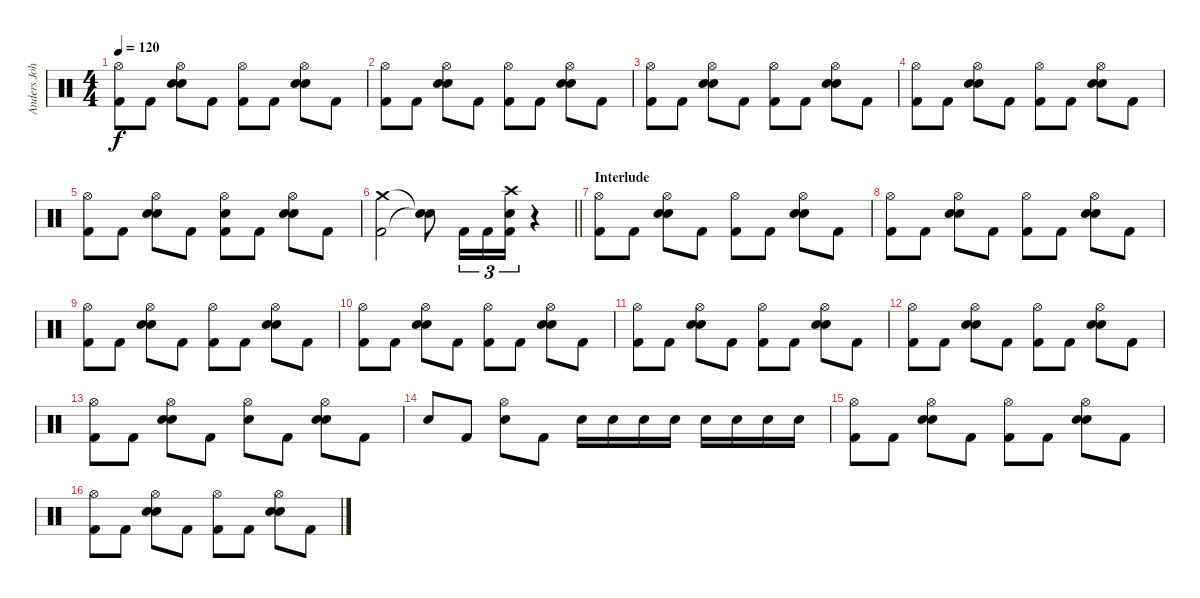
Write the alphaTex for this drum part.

\track ("Anders Johansson" "Anders Joh") {instrument percussion}
\staff {score}
\articulation defaults
\ts (4 4)
\tempo 120
\clef neutral
\ks c
("Hi-Hat (open)" "Kick (hit) 2").8{dy f} "Kick (hit) 2".8 ("Hi-Hat (open)" "Electric Snare (hit)" "Snare (hit) 2").8 "Kick (hit) 2".8 ("Hi-Hat (open)" "Kick (hit) 2").8 "Kick (hit) 2".8 ("Hi-Hat (open)" "Electric Snare (hit)" "Snare (hit) 2").8 "Kick (hit) 2".8 |
("Hi-Hat (open)" "Kick (hit) 2").8 "Kick (hit) 2".8 ("Hi-Hat (open)" "Electric Snare (hit)" "Snare (hit) 2").8 "Kick (hit) 2".8 ("Hi-Hat (open)" "Kick (hit) 2").8 "Kick (hit) 2".8 ("Hi-Hat (open)" "Electric Snare (hit)" "Snare (hit) 2").8 "Kick (hit) 2".8 |
("Hi-Hat (open)" "Kick (hit) 2").8 "Kick (hit) 2".8 ("Hi-Hat (open)" "Electric Snare (hit)" "Snare (hit) 2").8 "Kick (hit) 2".8 ("Hi-Hat (open)" "Kick (hit) 2").8 "Kick (hit) 2".8 ("Hi-Hat (open)" "Electric Snare (hit)" "Snare (hit) 2").8 "Kick (hit) 2".8 |
("Hi-Hat (open)" "Kick (hit) 2").8 "Kick (hit) 2".8 ("Hi-Hat (open)" "Electric Snare (hit)" "Snare (hit) 2").8 "Kick (hit) 2".8 ("Hi-Hat (open)" "Kick (hit) 2").8 "Kick (hit) 2".8 ("Hi-Hat (open)" "Electric Snare (hit)" "Snare (hit) 2").8 "Kick (hit) 2".8 |
("Hi-Hat (open)" "Kick (hit) 2").8 "Kick (hit) 2".8 ("Hi-Hat (open)" "Electric Snare (hit)" "Snare (hit) 2").8 "Kick (hit) 2".8 ("Hi-Hat (open)" "Electric Snare (hit)" "Kick (hit) 2").8 "Kick (hit) 2".8 ("Hi-Hat (open)" "Electric Snare (hit)" "Snare (hit) 2").8 "Kick (hit) 2".8 |
\barLineRight lightlight
("Crash medium (hit)" "Kick (hit) 2").2 ("Snare (hit)"{t} "Snare (hit)"{t}).8 "Kick (hit) 2".16{tu (3 2)} "Kick (hit) 2".16{tu (3 2)} ("Crash high (hit)" "Electric Snare (hit)" "Kick (hit) 2").16{tu (3 2)} r.4 |
\section ("" "Interlude")
("Hi-Hat (open)" "Kick (hit) 2").8 "Kick (hit) 2".8 ("Hi-Hat (open)" "Electric Snare (hit)" "Snare (hit) 2").8 "Kick (hit) 2".8 ("Hi-Hat (open)" "Kick (hit) 2").8 "Kick (hit) 2".8 ("Hi-Hat (open)" "Electric Snare (hit)" "Snare (hit) 2").8 "Kick (hit) 2".8 |
("Hi-Hat (open)" "Kick (hit) 2").8 "Kick (hit) 2".8 ("Hi-Hat (open)" "Electric Snare (hit)" "Snare (hit) 2").8 "Kick (hit) 2".8 ("Hi-Hat (open)" "Kick (hit) 2").8 "Kick (hit) 2".8 ("Hi-Hat (open)" "Electric Snare (hit)" "Snare (hit) 2").8 "Kick (hit) 2".8 |
("Hi-Hat (open)" "Kick (hit) 2").8 "Kick (hit) 2".8 ("Hi-Hat (open)" "Electric Snare (hit)" "Snare (hit) 2").8 "Kick (hit) 2".8 ("Hi-Hat (open)" "Kick (hit) 2").8 "Kick (hit) 2".8 ("Hi-Hat (open)" "Electric Snare (hit)" "Snare (hit) 2").8 "Kick (hit) 2".8 |
("Hi-Hat (open)" "Kick (hit) 2").8 "Kick (hit) 2".8 ("Hi-Hat (open)" "Electric Snare (hit)" "Snare (hit) 2").8 "Kick (hit) 2".8 ("Hi-Hat (open)" "Kick (hit) 2").8 "Kick (hit) 2".8 ("Hi-Hat (open)" "Electric Snare (hit)" "Snare (hit) 2").8 "Kick (hit) 2".8 |
("Hi-Hat (open)" "Kick (hit) 2").8 "Kick (hit) 2".8 ("Hi-Hat (open)" "Electric Snare (hit)" "Snare (hit) 2").8 "Kick (hit) 2".8 ("Hi-Hat (open)" "Kick (hit) 2").8 "Kick (hit) 2".8 ("Hi-Hat (open)" "Electric Snare (hit)" "Snare (hit) 2").8 "Kick (hit) 2".8 |
("Hi-Hat (open)" "Kick (hit) 2").8 "Kick (hit) 2".8 ("Hi-Hat (open)" "Electric Snare (hit)" "Snare (hit) 2").8 "Kick (hit) 2".8 ("Hi-Hat (open)" "Kick (hit) 2").8 "Kick (hit) 2".8 ("Hi-Hat (open)" "Electric Snare (hit)" "Snare (hit) 2").8 "Kick (hit) 2".8 |
("Hi-Hat (open)" "Kick (hit) 2").8 "Kick (hit) 2".8 ("Hi-Hat (open)" "Electric Snare (hit)" "Snare (hit) 2").8 "Kick (hit) 2".8 ("Hi-Hat (open)" "Electric Snare (hit)").8 "Kick (hit) 2".8 ("Hi-Hat (open)" "Electric Snare (hit)" "Snare (hit) 2").8 "Kick (hit) 2".8 |
"Electric Snare (hit)".8 "Kick (hit) 2".8 ("Hi-Hat (open)" "Electric Snare (hit)").8 "Kick (hit) 2".8 "Electric Snare (hit)".16 "Electric Snare (hit)".16 "Electric Snare (hit)".16 "Electric Snare (hit)".16 "Electric Snare (hit)".16 "Electric Snare (hit)".16 "Electric Snare (hit)".16 "Electric Snare (hit)".16 |
("Hi-Hat (open)" "Kick (hit) 2").8 "Kick (hit) 2".8 ("Hi-Hat (open)" "Electric Snare (hit)" "Snare (hit) 2").8 "Kick (hit) 2".8 ("Hi-Hat (open)" "Kick (hit) 2").8 "Kick (hit) 2".8 ("Hi-Hat (open)" "Electric Snare (hit)" "Snare (hit) 2").8 "Kick (hit) 2".8 |
("Hi-Hat (open)" "Kick (hit) 2").8 "Kick (hit) 2".8 ("Hi-Hat (open)" "Electric Snare (hit)" "Snare (hit) 2").8 "Kick (hit) 2".8 ("Hi-Hat (open)" "Kick (hit) 2").8 "Kick (hit) 2".8 ("Hi-Hat (open)" "Electric Snare (hit)" "Snare (hit) 2").8 "Kick (hit) 2".8
